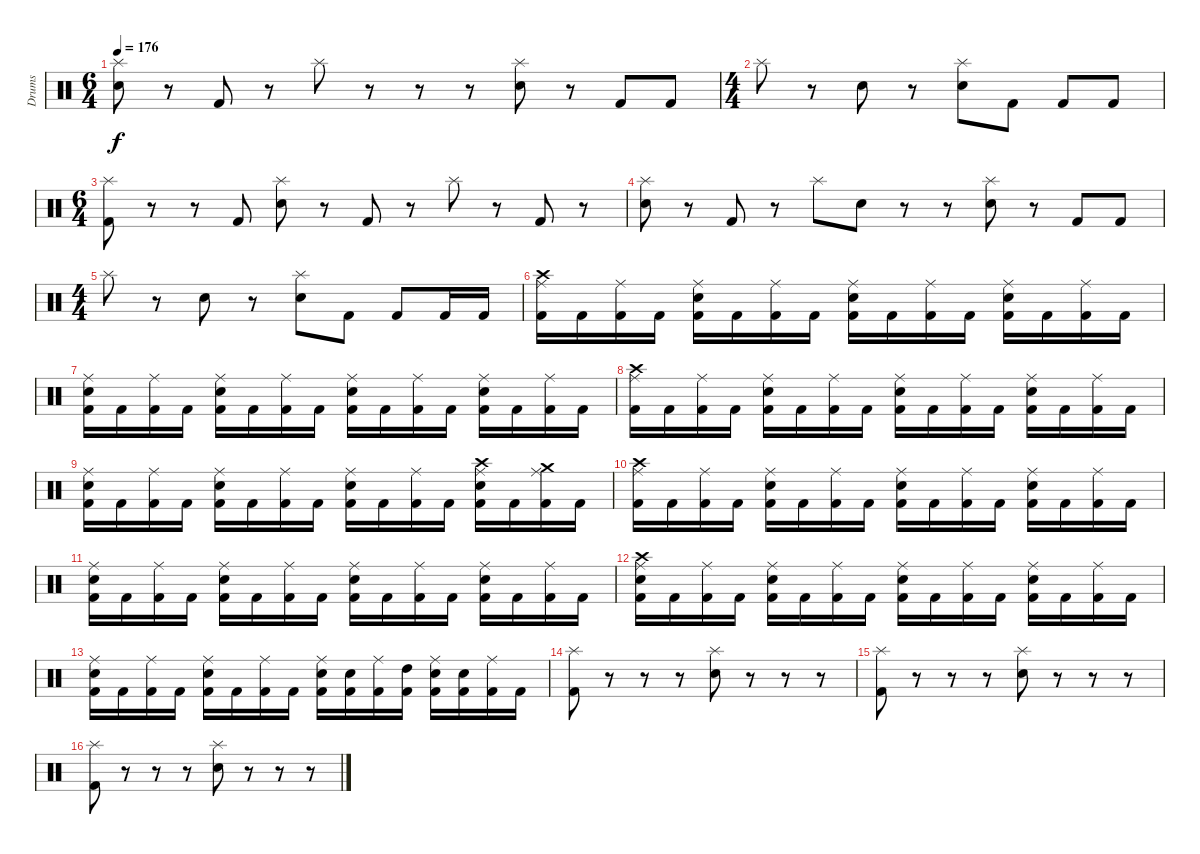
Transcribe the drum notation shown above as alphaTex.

\track ("Drums" "Drums") {instrument percussion}
\staff {score}
\articulation defaults
\ts (6 4)
\tempo 176
\clef neutral
\ks c
("Electric Snare (hit)" "Splash (hit)").8{dy f} r.8 "Kick (hit) 2".8 r.8 "Splash (hit)".8 r.8 r.8 r.8 ("Electric Snare (hit)" "Splash (hit)").8 r.8 "Kick (hit) 2".8 "Kick (hit) 2".8 |
\ts (4 4)
"Splash (hit)".8 r.8 "Electric Snare (hit)".8 r.8 ("Electric Snare (hit)" "Splash (hit)").8 "Kick (hit) 2".8 "Kick (hit) 2".8 "Kick (hit) 2".8 |
\ts (6 4)
("Splash (hit)" "Kick (hit) 2").8 r.8 r.8 "Kick (hit) 2".8 ("Electric Snare (hit)" "Splash (hit)").8 r.8 "Kick (hit) 2".8 r.8 "Splash (hit)".8 r.8 "Kick (hit) 2".8 r.8 |
("Electric Snare (hit)" "Splash (hit)").8 r.8 "Kick (hit) 2".8 r.8 "Splash (hit)".8 "Electric Snare (hit)".8 r.8 r.8 ("Electric Snare (hit)" "Splash (hit)").8 r.8 "Kick (hit) 2".8 "Kick (hit) 2".8 |
\ts (4 4)
"Splash (hit)".8 r.8 "Electric Snare (hit)".8 r.8 ("Electric Snare (hit)" "Splash (hit)").8 "Kick (hit) 2".8 "Kick (hit) 2".8 "Kick (hit) 2".16 "Kick (hit) 2".16 |
("Crash high (hit)" "Ride (middle)" "Kick (hit) 2").16 "Kick (hit) 2".16 ("Ride (middle)" "Kick (hit) 2").16 "Kick (hit) 2".16 ("Electric Snare (hit)" "Ride (middle)" "Kick (hit) 2").16 "Kick (hit) 2".16 ("Ride (middle)" "Kick (hit) 2").16 "Kick (hit) 2".16 ("Electric Snare (hit)" "Ride (middle)" "Kick (hit) 2").16 "Kick (hit) 2".16 ("Ride (middle)" "Kick (hit) 2").16 "Kick (hit) 2".16 ("Electric Snare (hit)" "Ride (middle)" "Kick (hit) 2").16 "Kick (hit) 2".16 ("Ride (middle)" "Kick (hit) 2").16 "Kick (hit) 2".16 |
("Electric Snare (hit)" "Ride (middle)" "Kick (hit) 2").16 "Kick (hit) 2".16 ("Ride (middle)" "Kick (hit) 2").16 "Kick (hit) 2".16 ("Electric Snare (hit)" "Ride (middle)" "Kick (hit) 2").16 "Kick (hit) 2".16 ("Ride (middle)" "Kick (hit) 2").16 "Kick (hit) 2".16 ("Electric Snare (hit)" "Ride (middle)" "Kick (hit) 2").16 "Kick (hit) 2".16 ("Ride (middle)" "Kick (hit) 2").16 "Kick (hit) 2".16 ("Electric Snare (hit)" "Ride (middle)" "Kick (hit) 2").16 "Kick (hit) 2".16 ("Ride (middle)" "Kick (hit) 2").16 "Kick (hit) 2".16 |
("Crash high (hit)" "Ride (middle)" "Kick (hit) 2").16 "Kick (hit) 2".16 ("Ride (middle)" "Kick (hit) 2").16 "Kick (hit) 2".16 ("Electric Snare (hit)" "Ride (middle)" "Kick (hit) 2").16 "Kick (hit) 2".16 ("Ride (middle)" "Kick (hit) 2").16 "Kick (hit) 2".16 ("Electric Snare (hit)" "Ride (middle)" "Kick (hit) 2").16 "Kick (hit) 2".16 ("Ride (middle)" "Kick (hit) 2").16 "Kick (hit) 2".16 ("Electric Snare (hit)" "Ride (middle)" "Kick (hit) 2").16 "Kick (hit) 2".16 ("Ride (middle)" "Kick (hit) 2").16 "Kick (hit) 2".16 |
("Electric Snare (hit)" "Ride (middle)" "Kick (hit) 2").16 "Kick (hit) 2".16 ("Ride (middle)" "Kick (hit) 2").16 "Kick (hit) 2".16 ("Electric Snare (hit)" "Ride (middle)" "Kick (hit) 2").16 "Kick (hit) 2".16 ("Ride (middle)" "Kick (hit) 2").16 "Kick (hit) 2".16 ("Electric Snare (hit)" "Ride (middle)" "Kick (hit) 2").16 "Kick (hit) 2".16 ("Ride (middle)" "Kick (hit) 2").16 "Kick (hit) 2".16 ("Crash high (hit)" "Electric Snare (hit)" "Ride (middle)" "Kick (hit) 2").16 "Kick (hit) 2".16 ("Crash medium (hit)" "Ride (middle)" "Kick (hit) 2").16 "Kick (hit) 2".16 |
("Crash high (hit)" "Ride (middle)" "Kick (hit) 2").16 "Kick (hit) 2".16 ("Ride (middle)" "Kick (hit) 2").16 "Kick (hit) 2".16 ("Electric Snare (hit)" "Ride (middle)" "Kick (hit) 2").16 "Kick (hit) 2".16 ("Ride (middle)" "Kick (hit) 2").16 "Kick (hit) 2".16 ("Electric Snare (hit)" "Ride (middle)" "Kick (hit) 2").16 "Kick (hit) 2".16 ("Ride (middle)" "Kick (hit) 2").16 "Kick (hit) 2".16 ("Electric Snare (hit)" "Ride (middle)" "Kick (hit) 2").16 "Kick (hit) 2".16 ("Ride (middle)" "Kick (hit) 2").16 "Kick (hit) 2".16 |
("Electric Snare (hit)" "Ride (middle)" "Kick (hit) 2").16 "Kick (hit) 2".16 ("Ride (middle)" "Kick (hit) 2").16 "Kick (hit) 2".16 ("Electric Snare (hit)" "Ride (middle)" "Kick (hit) 2").16 "Kick (hit) 2".16 ("Ride (middle)" "Kick (hit) 2").16 "Kick (hit) 2".16 ("Electric Snare (hit)" "Ride (middle)" "Kick (hit) 2").16 "Kick (hit) 2".16 ("Ride (middle)" "Kick (hit) 2").16 "Kick (hit) 2".16 ("Electric Snare (hit)" "Ride (middle)" "Kick (hit) 2").16 "Kick (hit) 2".16 ("Ride (middle)" "Kick (hit) 2").16 "Kick (hit) 2".16 |
("Crash high (hit)" "Electric Snare (hit)" "Ride (middle)" "Kick (hit) 2").16 "Kick (hit) 2".16 ("Ride (middle)" "Kick (hit) 2").16 "Kick (hit) 2".16 ("Electric Snare (hit)" "Ride (middle)" "Kick (hit) 2").16 "Kick (hit) 2".16 ("Ride (middle)" "Kick (hit) 2").16 "Kick (hit) 2".16 ("Electric Snare (hit)" "Ride (middle)" "Kick (hit) 2").16 "Kick (hit) 2".16 ("Ride (middle)" "Kick (hit) 2").16 "Kick (hit) 2".16 ("Electric Snare (hit)" "Ride (middle)" "Kick (hit) 2").16 "Kick (hit) 2".16 ("Ride (middle)" "Kick (hit) 2").16 "Kick (hit) 2".16 |
("Electric Snare (hit)" "Ride (middle)" "Kick (hit) 2").16 "Kick (hit) 2".16 ("Ride (middle)" "Kick (hit) 2").16 "Kick (hit) 2".16 ("Electric Snare (hit)" "Ride (middle)" "Kick (hit) 2").16 "Kick (hit) 2".16 ("Ride (middle)" "Kick (hit) 2").16 "Kick (hit) 2".16 ("Electric Snare (hit)" "Ride (middle)" "Kick (hit) 2").16 ("Electric Snare (hit)" "Kick (hit) 2").16 ("Ride (middle)" "Kick (hit) 2").16 ("High Tom (hit)" "Kick (hit) 2").16 ("Electric Snare (hit)" "Ride (middle)" "Kick (hit) 2").16 ("Electric Snare (hit)" "Kick (hit) 2").16 ("Ride (middle)" "Kick (hit) 2").16 "Kick (hit) 2".16 |
("Splash (hit)" "Kick (hit) 2").8 r.8 r.8 r.8 ("Splash (hit)" "Electric Snare (hit)").8 r.8 r.8 r.8 |
("Splash (hit)" "Kick (hit) 2").8 r.8 r.8 r.8 ("Splash (hit)" "Electric Snare (hit)").8 r.8 r.8 r.8 |
("Splash (hit)" "Kick (hit) 2").8 r.8 r.8 r.8 ("Splash (hit)" "Electric Snare (hit)").8 r.8 r.8 r.8
